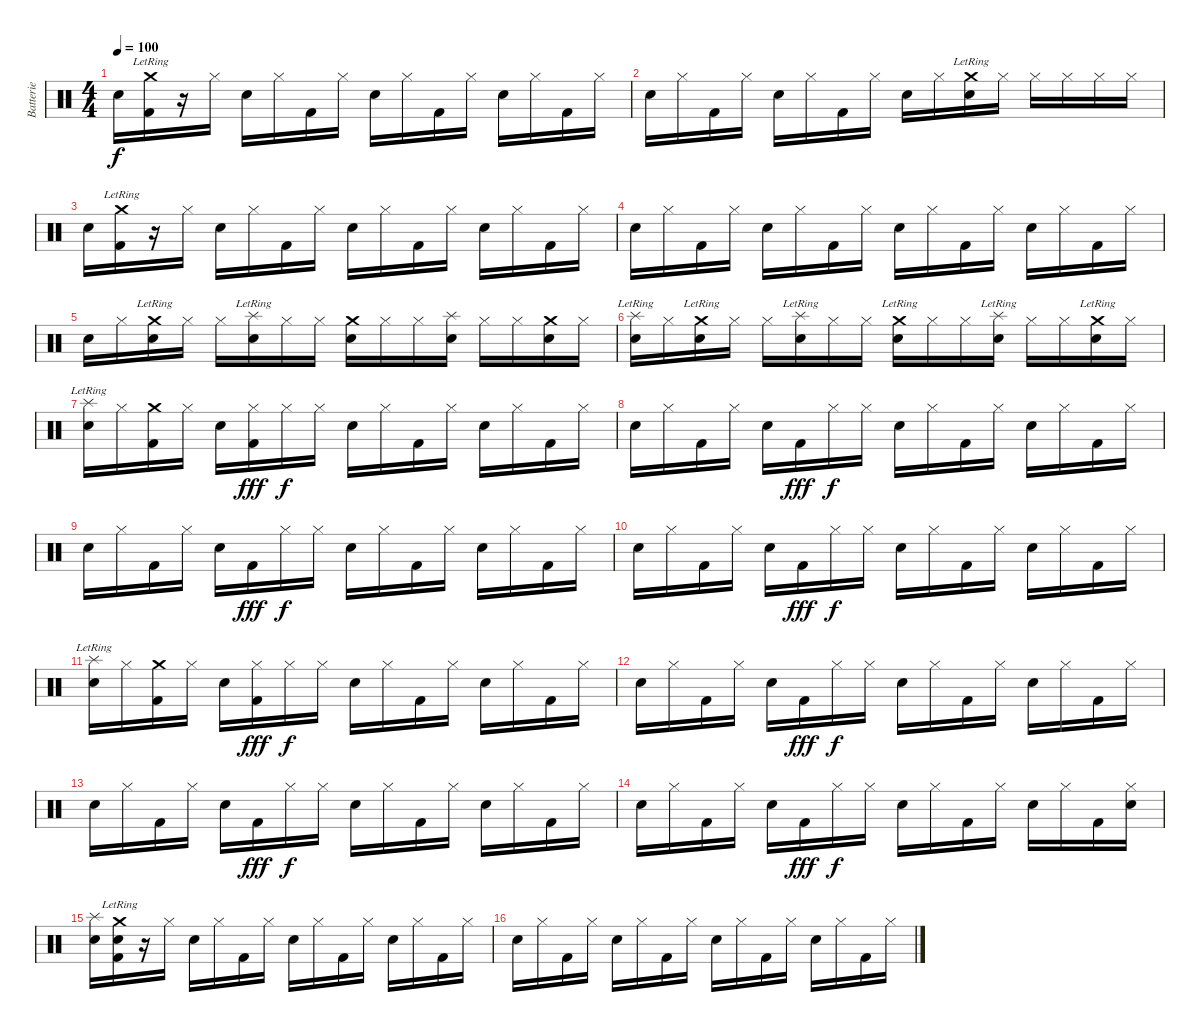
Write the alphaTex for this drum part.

\track ("Batterie" "Batterie") {instrument percussion}
\staff {score}
\articulation defaults
\ts (4 4)
\tempo 100
\clef neutral
\ks c "Metronome (bell)".16{dy f}
("Crash medium (hit)"{lr} "Kick (hit) 2").16 r.16 "Hi-Hat (closed)".16 "Metronome (bell)".16 "Hi-Hat (closed)".16 "Kick (hit) 2".16 "Hi-Hat (closed)".16 "Metronome (bell)".16 "Hi-Hat (closed)".16 "Kick (hit) 2".16 "Hi-Hat (closed)".16 "Metronome (bell)".16 "Hi-Hat (closed)".16 "Kick (hit) 2".16 "Hi-Hat (closed)".16 |
"Metronome (bell)".16 "Hi-Hat (closed)".16 "Kick (hit) 2".16 "Hi-Hat (closed)".16 "Metronome (bell)".16 "Hi-Hat (closed)".16 "Kick (hit) 2".16 "Hi-Hat (closed)".16 "Metronome (bell)".16 "Hi-Hat (closed)".16 ("Crash medium (hit)"{lr} "Metronome (bell)").16 "Hi-Hat (closed)".16 "Hi-Hat (closed)".16 "Hi-Hat (closed)".16 "Hi-Hat (closed)".16 "Hi-Hat (closed)".16 |
"Metronome (bell)".16 ("Crash medium (hit)"{lr} "Kick (hit) 2").16 r.16 "Hi-Hat (closed)".16 "Metronome (bell)".16 "Hi-Hat (closed)".16 "Kick (hit) 2".16 "Hi-Hat (closed)".16 "Metronome (bell)".16 "Hi-Hat (closed)".16 "Kick (hit) 2".16 "Hi-Hat (closed)".16 "Metronome (bell)".16 "Hi-Hat (closed)".16 "Kick (hit) 2".16 "Hi-Hat (closed)".16 |
"Metronome (bell)".16 "Hi-Hat (closed)".16 "Kick (hit) 2".16 "Hi-Hat (closed)".16 "Metronome (bell)".16 "Hi-Hat (closed)".16 "Kick (hit) 2".16 "Hi-Hat (closed)".16 "Metronome (bell)".16 "Hi-Hat (closed)".16 "Kick (hit) 2".16 "Hi-Hat (closed)".16 "Metronome (bell)".16 "Hi-Hat (closed)".16 "Kick (hit) 2".16 "Hi-Hat (closed)".16 |
"Metronome (bell)".16 "Hi-Hat (closed)".16 ("Crash medium (hit)"{lr} "Metronome (bell)").16 "Hi-Hat (closed)".16 "Hi-Hat (closed)".16 ("Splash (hit)"{lr} "Metronome (bell)").16 "Hi-Hat (closed)".16 "Hi-Hat (closed)".16 ("Crash medium (hit)" "Metronome (bell)").16 "Hi-Hat (closed)".16 "Hi-Hat (closed)".16 ("Splash (hit)" "Metronome (bell)").16 "Hi-Hat (closed)".16 "Hi-Hat (closed)".16 ("Crash medium (hit)" "Metronome (bell)").16 "Hi-Hat (closed)".16 |
("Splash (hit)"{lr} "Metronome (bell)").16 "Hi-Hat (closed)".16 ("Crash medium (hit)"{lr} "Metronome (bell)").16 "Hi-Hat (closed)".16 "Hi-Hat (closed)".16 ("Splash (hit)"{lr} "Metronome (bell)").16 "Hi-Hat (closed)".16 "Hi-Hat (closed)".16 ("Crash medium (hit)"{lr} "Metronome (bell)").16 "Hi-Hat (closed)".16 "Hi-Hat (closed)".16 ("Splash (hit)"{lr} "Metronome (bell)").16 "Hi-Hat (closed)".16 "Hi-Hat (closed)".16 ("Crash medium (hit)"{lr} "Metronome (bell)").16 "Hi-Hat (closed)".16 |
("Splash (hit)"{lr} "Metronome (bell)").16 "Hi-Hat (closed)".16 ("Crash medium (hit)" "Kick (hit) 2").16 "Hi-Hat (closed)".16 "Metronome (bell)".16 ("Kick (hit) 2" "Hi-Hat (closed)").16{dy fff} "Hi-Hat (closed)".16{dy f} "Hi-Hat (closed)".16 "Metronome (bell)".16 "Hi-Hat (closed)".16 "Kick (hit) 2".16 "Hi-Hat (closed)".16 "Metronome (bell)".16 "Hi-Hat (closed)".16 "Kick (hit) 2".16 "Hi-Hat (closed)".16 |
"Metronome (bell)".16 "Hi-Hat (closed)".16 "Kick (hit) 2".16 "Hi-Hat (closed)".16 "Metronome (bell)".16 "Kick (hit) 2".16{dy fff} "Hi-Hat (closed)".16{dy f} "Hi-Hat (closed)".16 "Metronome (bell)".16 "Hi-Hat (closed)".16 "Kick (hit) 2".16 "Hi-Hat (closed)".16 "Metronome (bell)".16 "Hi-Hat (closed)".16 "Kick (hit) 2".16 "Hi-Hat (closed)".16 |
"Metronome (bell)".16 "Hi-Hat (closed)".16 "Kick (hit) 2".16 "Hi-Hat (closed)".16 "Metronome (bell)".16 "Kick (hit) 2".16{dy fff} "Hi-Hat (closed)".16{dy f} "Hi-Hat (closed)".16 "Metronome (bell)".16 "Hi-Hat (closed)".16 "Kick (hit) 2".16 "Hi-Hat (closed)".16 "Metronome (bell)".16 "Hi-Hat (closed)".16 "Kick (hit) 2".16 "Hi-Hat (closed)".16 |
"Metronome (bell)".16 "Hi-Hat (closed)".16 "Kick (hit) 2".16 "Hi-Hat (closed)".16 "Metronome (bell)".16 "Kick (hit) 2".16{dy fff} "Hi-Hat (closed)".16{dy f} "Hi-Hat (closed)".16 "Metronome (bell)".16 "Hi-Hat (closed)".16 "Kick (hit) 2".16 "Hi-Hat (closed)".16 "Metronome (bell)".16 "Hi-Hat (closed)".16 "Kick (hit) 2".16 "Hi-Hat (closed)".16 |
("Splash (hit)"{lr} "Metronome (bell)").16 "Hi-Hat (closed)".16 ("Crash medium (hit)" "Kick (hit) 2").16 "Hi-Hat (closed)".16 "Metronome (bell)".16 ("Kick (hit) 2" "Hi-Hat (closed)").16{dy fff} "Hi-Hat (closed)".16{dy f} "Hi-Hat (closed)".16 "Metronome (bell)".16 "Hi-Hat (closed)".16 "Kick (hit) 2".16 "Hi-Hat (closed)".16 "Metronome (bell)".16 "Hi-Hat (closed)".16 "Kick (hit) 2".16 "Hi-Hat (closed)".16 |
"Metronome (bell)".16 "Hi-Hat (closed)".16 "Kick (hit) 2".16 "Hi-Hat (closed)".16 "Metronome (bell)".16 "Kick (hit) 2".16{dy fff} "Hi-Hat (closed)".16{dy f} "Hi-Hat (closed)".16 "Metronome (bell)".16 "Hi-Hat (closed)".16 "Kick (hit) 2".16 "Hi-Hat (closed)".16 "Metronome (bell)".16 "Hi-Hat (closed)".16 "Kick (hit) 2".16 "Hi-Hat (closed)".16 |
"Metronome (bell)".16 "Hi-Hat (closed)".16 "Kick (hit) 2".16 "Hi-Hat (closed)".16 "Metronome (bell)".16 "Kick (hit) 2".16{dy fff} "Hi-Hat (closed)".16{dy f} "Hi-Hat (closed)".16 "Metronome (bell)".16 "Hi-Hat (closed)".16 "Kick (hit) 2".16 "Hi-Hat (closed)".16 "Metronome (bell)".16 "Hi-Hat (closed)".16 "Kick (hit) 2".16 "Hi-Hat (closed)".16 |
"Metronome (bell)".16 "Hi-Hat (closed)".16 "Kick (hit) 2".16 "Hi-Hat (closed)".16 "Metronome (bell)".16 "Kick (hit) 2".16{dy fff} "Hi-Hat (closed)".16{dy f} "Hi-Hat (closed)".16 "Metronome (bell)".16 "Hi-Hat (closed)".16 "Kick (hit) 2".16 "Hi-Hat (closed)".16 "Metronome (bell)".16 "Hi-Hat (closed)".16 "Kick (hit) 2".16 ("Metronome (bell)" "Hi-Hat (closed)").16 |
("Splash (hit)" "Metronome (bell)").16 ("Crash medium (hit)"{lr} "Metronome (bell)" "Kick (hit) 2").16 r.16 "Hi-Hat (closed)".16 "Metronome (bell)".16 "Hi-Hat (closed)".16 "Kick (hit) 2".16 "Hi-Hat (closed)".16 "Metronome (bell)".16 "Hi-Hat (closed)".16 "Kick (hit) 2".16 "Hi-Hat (closed)".16 "Metronome (bell)".16 "Hi-Hat (closed)".16 "Kick (hit) 2".16 "Hi-Hat (closed)".16 |
"Metronome (bell)".16 "Hi-Hat (closed)".16 "Kick (hit) 2".16 "Hi-Hat (closed)".16 "Metronome (bell)".16 "Hi-Hat (closed)".16 "Kick (hit) 2".16 "Hi-Hat (closed)".16 "Metronome (bell)".16 "Hi-Hat (closed)".16 "Kick (hit) 2".16 "Hi-Hat (closed)".16 "Metronome (bell)".16 "Hi-Hat (closed)".16 "Kick (hit) 2".16 "Hi-Hat (closed)".16
